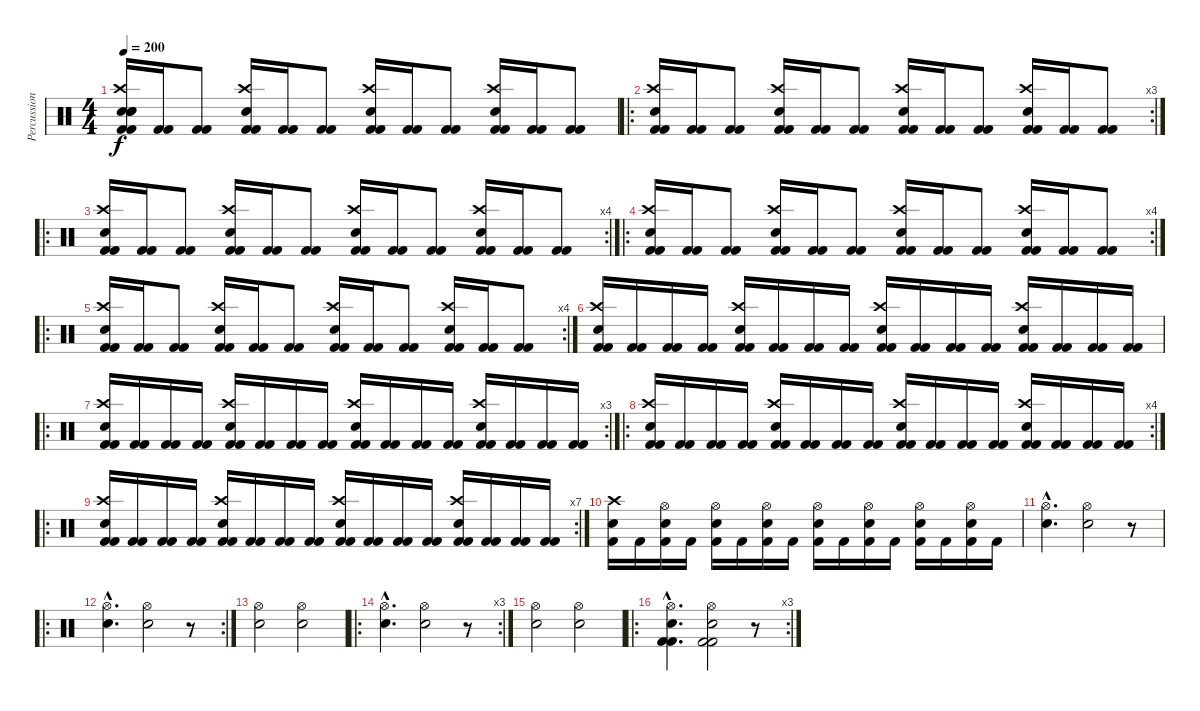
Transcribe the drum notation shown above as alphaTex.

\track ("Percussion" "Percussion") {instrument percussion}
\staff {score}
\articulation defaults
\ts (4 4)
\tempo 200
\clef neutral
\ks c
("Electric Snare (hit)" "Electric Snare (hit)" "Crash high (hit)" "Electric Snare (hit)" "Kick (hit) 2" "Kick (hit) 2").16{dy f} ("Kick (hit) 2" "Kick (hit) 2").16 ("Kick (hit) 2" "Kick (hit) 2").8 ("Crash high (hit)" "Electric Snare (hit)" "Kick (hit) 2" "Kick (hit) 2").16 ("Kick (hit) 2" "Kick (hit) 2").16 ("Kick (hit) 2" "Kick (hit) 2").8 ("Crash high (hit)" "Electric Snare (hit)" "Kick (hit) 2" "Kick (hit) 2").16 ("Kick (hit) 2" "Kick (hit) 2").16 ("Kick (hit) 2" "Kick (hit) 2").8 ("Crash high (hit)" "Electric Snare (hit)" "Kick (hit) 2" "Kick (hit) 2").16 ("Kick (hit) 2" "Kick (hit) 2").16 ("Kick (hit) 2" "Kick (hit) 2").8 |
\ro
\rc 3
("Crash high (hit)" "Electric Snare (hit)" "Kick (hit) 2" "Kick (hit) 2").16 ("Kick (hit) 2" "Kick (hit) 2").16 ("Kick (hit) 2" "Kick (hit) 2").8 ("Crash high (hit)" "Electric Snare (hit)" "Kick (hit) 2" "Kick (hit) 2").16 ("Kick (hit) 2" "Kick (hit) 2").16 ("Kick (hit) 2" "Kick (hit) 2").8 ("Crash high (hit)" "Electric Snare (hit)" "Kick (hit) 2" "Kick (hit) 2").16 ("Kick (hit) 2" "Kick (hit) 2").16 ("Kick (hit) 2" "Kick (hit) 2").8 ("Crash high (hit)" "Electric Snare (hit)" "Kick (hit) 2" "Kick (hit) 2").16 ("Kick (hit) 2" "Kick (hit) 2").16 ("Kick (hit) 2" "Kick (hit) 2").8 |
\ro
\rc 4
("Crash high (hit)" "Electric Snare (hit)" "Kick (hit) 2" "Kick (hit) 2").16 ("Kick (hit) 2" "Kick (hit) 2").16 ("Kick (hit) 2" "Kick (hit) 2").8 ("Crash high (hit)" "Electric Snare (hit)" "Kick (hit) 2" "Kick (hit) 2").16 ("Kick (hit) 2" "Kick (hit) 2").16 ("Kick (hit) 2" "Kick (hit) 2").8 ("Crash high (hit)" "Electric Snare (hit)" "Kick (hit) 2" "Kick (hit) 2").16 ("Kick (hit) 2" "Kick (hit) 2").16 ("Kick (hit) 2" "Kick (hit) 2").8 ("Crash high (hit)" "Electric Snare (hit)" "Kick (hit) 2" "Kick (hit) 2").16 ("Kick (hit) 2" "Kick (hit) 2").16 ("Kick (hit) 2" "Kick (hit) 2").8 |
\ro
\rc 4
("Crash high (hit)" "Electric Snare (hit)" "Kick (hit) 2" "Kick (hit) 2").16 ("Kick (hit) 2" "Kick (hit) 2").16 ("Kick (hit) 2" "Kick (hit) 2").8 ("Crash high (hit)" "Electric Snare (hit)" "Kick (hit) 2" "Kick (hit) 2").16 ("Kick (hit) 2" "Kick (hit) 2").16 ("Kick (hit) 2" "Kick (hit) 2").8 ("Crash high (hit)" "Electric Snare (hit)" "Kick (hit) 2" "Kick (hit) 2").16 ("Kick (hit) 2" "Kick (hit) 2").16 ("Kick (hit) 2" "Kick (hit) 2").8 ("Crash high (hit)" "Electric Snare (hit)" "Kick (hit) 2" "Kick (hit) 2").16 ("Kick (hit) 2" "Kick (hit) 2").16 ("Kick (hit) 2" "Kick (hit) 2").8 |
\ro
\rc 4
("Crash high (hit)" "Electric Snare (hit)" "Kick (hit) 2" "Kick (hit) 2").16 ("Kick (hit) 2" "Kick (hit) 2").16 ("Kick (hit) 2" "Kick (hit) 2").8 ("Crash high (hit)" "Electric Snare (hit)" "Kick (hit) 2" "Kick (hit) 2").16 ("Kick (hit) 2" "Kick (hit) 2").16 ("Kick (hit) 2" "Kick (hit) 2").8 ("Crash high (hit)" "Electric Snare (hit)" "Kick (hit) 2" "Kick (hit) 2").16 ("Kick (hit) 2" "Kick (hit) 2").16 ("Kick (hit) 2" "Kick (hit) 2").8 ("Crash high (hit)" "Electric Snare (hit)" "Kick (hit) 2" "Kick (hit) 2").16 ("Kick (hit) 2" "Kick (hit) 2").16 ("Kick (hit) 2" "Kick (hit) 2").8 |
("Crash high (hit)" "Electric Snare (hit)" "Kick (hit) 2" "Kick (hit) 2").16 ("Kick (hit) 2" "Kick (hit) 2").16 ("Kick (hit) 2" "Kick (hit) 2").16 ("Kick (hit) 2" "Kick (hit) 2").16 ("Crash high (hit)" "Electric Snare (hit)" "Kick (hit) 2" "Kick (hit) 2").16 ("Kick (hit) 2" "Kick (hit) 2").16 ("Kick (hit) 2" "Kick (hit) 2").16 ("Kick (hit) 2" "Kick (hit) 2").16 ("Crash high (hit)" "Electric Snare (hit)" "Kick (hit) 2" "Kick (hit) 2").16 ("Kick (hit) 2" "Kick (hit) 2").16 ("Kick (hit) 2" "Kick (hit) 2").16 ("Kick (hit) 2" "Kick (hit) 2").16 ("Crash high (hit)" "Electric Snare (hit)" "Kick (hit) 2" "Kick (hit) 2").16 ("Kick (hit) 2" "Kick (hit) 2").16 ("Kick (hit) 2" "Kick (hit) 2").16 ("Kick (hit) 2" "Kick (hit) 2").16 |
\ro
\rc 3
("Crash high (hit)" "Electric Snare (hit)" "Kick (hit) 2" "Kick (hit) 2").16 ("Kick (hit) 2" "Kick (hit) 2").16 ("Kick (hit) 2" "Kick (hit) 2").16 ("Kick (hit) 2" "Kick (hit) 2").16 ("Crash high (hit)" "Electric Snare (hit)" "Kick (hit) 2" "Kick (hit) 2").16 ("Kick (hit) 2" "Kick (hit) 2").16 ("Kick (hit) 2" "Kick (hit) 2").16 ("Kick (hit) 2" "Kick (hit) 2").16 ("Crash high (hit)" "Electric Snare (hit)" "Kick (hit) 2" "Kick (hit) 2").16 ("Kick (hit) 2" "Kick (hit) 2").16 ("Kick (hit) 2" "Kick (hit) 2").16 ("Kick (hit) 2" "Kick (hit) 2").16 ("Crash high (hit)" "Electric Snare (hit)" "Kick (hit) 2" "Kick (hit) 2").16 ("Kick (hit) 2" "Kick (hit) 2").16 ("Kick (hit) 2" "Kick (hit) 2").16 ("Kick (hit) 2" "Kick (hit) 2").16 |
\ro
\rc 4
("Crash high (hit)" "Electric Snare (hit)" "Kick (hit) 2" "Kick (hit) 2").16 ("Kick (hit) 2" "Kick (hit) 2").16 ("Kick (hit) 2" "Kick (hit) 2").16 ("Kick (hit) 2" "Kick (hit) 2").16 ("Crash high (hit)" "Electric Snare (hit)" "Kick (hit) 2" "Kick (hit) 2").16 ("Kick (hit) 2" "Kick (hit) 2").16 ("Kick (hit) 2" "Kick (hit) 2").16 ("Kick (hit) 2" "Kick (hit) 2").16 ("Crash high (hit)" "Electric Snare (hit)" "Kick (hit) 2" "Kick (hit) 2").16 ("Kick (hit) 2" "Kick (hit) 2").16 ("Kick (hit) 2" "Kick (hit) 2").16 ("Kick (hit) 2" "Kick (hit) 2").16 ("Crash high (hit)" "Electric Snare (hit)" "Kick (hit) 2" "Kick (hit) 2").16 ("Kick (hit) 2" "Kick (hit) 2").16 ("Kick (hit) 2" "Kick (hit) 2").16 ("Kick (hit) 2" "Kick (hit) 2").16 |
\ro
\rc 7
("Crash high (hit)" "Electric Snare (hit)" "Kick (hit) 2" "Kick (hit) 2").16 ("Kick (hit) 2" "Kick (hit) 2").16 ("Kick (hit) 2" "Kick (hit) 2").16 ("Kick (hit) 2" "Kick (hit) 2").16 ("Crash high (hit)" "Electric Snare (hit)" "Kick (hit) 2" "Kick (hit) 2").16 ("Kick (hit) 2" "Kick (hit) 2").16 ("Kick (hit) 2" "Kick (hit) 2").16 ("Kick (hit) 2" "Kick (hit) 2").16 ("Crash high (hit)" "Electric Snare (hit)" "Kick (hit) 2" "Kick (hit) 2").16 ("Kick (hit) 2" "Kick (hit) 2").16 ("Kick (hit) 2" "Kick (hit) 2").16 ("Kick (hit) 2" "Kick (hit) 2").16 ("Crash high (hit)" "Electric Snare (hit)" "Kick (hit) 2" "Kick (hit) 2").16 ("Kick (hit) 2" "Kick (hit) 2").16 ("Kick (hit) 2" "Kick (hit) 2").16 ("Kick (hit) 2" "Kick (hit) 2").16 |
("Crash high (hit)" "Electric Snare (hit)" "Kick (hit) 2").16 "Kick (hit) 2".16 ("Hi-Hat (open)" "Electric Snare (hit)" "Kick (hit) 2").16 "Kick (hit) 2".16 ("Hi-Hat (open)" "Electric Snare (hit)" "Kick (hit) 2").16 "Kick (hit) 2".16 ("Hi-Hat (open)" "Electric Snare (hit)" "Kick (hit) 2").16 "Kick (hit) 2".16 ("Hi-Hat (open)" "Electric Snare (hit)" "Kick (hit) 2").16 "Kick (hit) 2".16 ("Hi-Hat (open)" "Electric Snare (hit)" "Kick (hit) 2").16 "Kick (hit) 2".16 ("Hi-Hat (open)" "Electric Snare (hit)" "Kick (hit) 2").16 "Kick (hit) 2".16 ("Hi-Hat (open)" "Electric Snare (hit)" "Kick (hit) 2").16 "Kick (hit) 2".16 |
("Hi-Hat (open)"{hac} "Electric Snare (hit)"{hac}).4{d} ("Hi-Hat (open)" "Electric Snare (hit)").2 r.8 |
\ro
\rc 2
("Hi-Hat (open)"{hac} "Electric Snare (hit)"{hac}).4{d} ("Hi-Hat (open)" "Electric Snare (hit)").2 r.8 |
("Hi-Hat (open)" "Electric Snare (hit)").2 ("Hi-Hat (open)" "Electric Snare (hit)").2 |
\ro
\rc 3
("Hi-Hat (open)"{hac} "Electric Snare (hit)"{hac}).4{d} ("Hi-Hat (open)" "Electric Snare (hit)").2 r.8 |
("Hi-Hat (open)" "Electric Snare (hit)").2 ("Hi-Hat (open)" "Electric Snare (hit)").2 |
\ro
\rc 3
("Hi-Hat (open)"{hac} "Electric Snare (hit)"{hac} "Kick (hit) 2"{hac} "Kick (hit) 2"{hac}).4{d} ("Hi-Hat (open)" "Electric Snare (hit)" "Kick (hit) 2" "Kick (hit) 2").2 r.8
